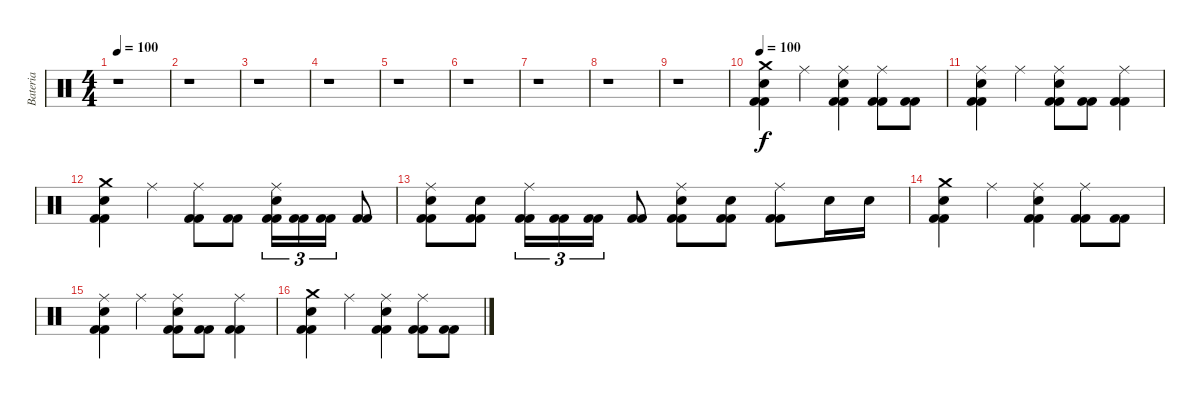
\track ("Bateria" "Bateria") {instrument percussion}
\staff {score}
\articulation defaults
\ts (4 4)
\tempo 100
\clef neutral
\ks c
r.1{dy f} |
r.1 |
r.1 |
r.1 |
r.1 |
r.1 |
r.1 |
r.1 |
r.1 |
\tempo 100
("Kick (hit) 2" "Kick (hit) 2" "Snare (hit) 2" "Crash medium (hit)").4 "Ride (middle)".4 ("Kick (hit) 2" "Kick (hit) 2" "Snare (hit) 2" "Ride (middle)").4 ("Kick (hit) 2" "Kick (hit) 2" "Ride (middle)").8 ("Kick (hit) 2" "Kick (hit) 2").8 |
("Kick (hit) 2" "Kick (hit) 2" "Snare (hit) 2" "Ride (middle)").4 "Ride (middle)".4 ("Kick (hit) 2" "Kick (hit) 2" "Snare (hit) 2" "Ride (middle)").8 ("Kick (hit) 2" "Kick (hit) 2").8 ("Kick (hit) 2" "Kick (hit) 2" "Ride (middle)").4 |
("Kick (hit) 2" "Kick (hit) 2" "Snare (hit) 2" "Crash medium (hit)").4 "Ride (middle)".4 ("Kick (hit) 2" "Kick (hit) 2" "Ride (middle)").8 ("Kick (hit) 2" "Kick (hit) 2").8 ("Kick (hit) 2" "Kick (hit) 2" "Snare (hit) 2" "Ride (middle)").16{tu (3 2)} ("Kick (hit) 2" "Kick (hit) 2").16{tu (3 2)} ("Kick (hit) 2" "Kick (hit) 2").16{tu (3 2)} ("Kick (hit) 2" "Kick (hit) 2").8 |
("Kick (hit) 2" "Kick (hit) 2" "Snare (hit) 2" "Ride (middle)").8 ("Kick (hit) 2" "Kick (hit) 2" "Snare (hit) 2").8 ("Kick (hit) 2" "Kick (hit) 2" "Ride (middle)").16{tu (3 2)} ("Kick (hit) 2" "Kick (hit) 2").16{tu (3 2)} ("Kick (hit) 2" "Kick (hit) 2").16{tu (3 2)} ("Kick (hit) 2" "Kick (hit) 2").8 ("Kick (hit) 2" "Kick (hit) 2" "Snare (hit) 2" "Ride (middle)").8 ("Kick (hit) 2" "Kick (hit) 2" "Snare (hit) 2").8 ("Kick (hit) 2" "Kick (hit) 2" "Ride (middle)").8 "Snare (hit) 2".16 "Snare (hit) 2".16 |
("Kick (hit) 2" "Kick (hit) 2" "Snare (hit) 2" "Crash medium (hit)").4 "Ride (middle)".4 ("Kick (hit) 2" "Kick (hit) 2" "Snare (hit) 2" "Ride (middle)").4 ("Kick (hit) 2" "Kick (hit) 2" "Ride (middle)").8 ("Kick (hit) 2" "Kick (hit) 2").8 |
("Kick (hit) 2" "Kick (hit) 2" "Snare (hit) 2" "Ride (middle)").4 "Ride (middle)".4 ("Kick (hit) 2" "Kick (hit) 2" "Snare (hit) 2" "Ride (middle)").8 ("Kick (hit) 2" "Kick (hit) 2").8 ("Kick (hit) 2" "Kick (hit) 2" "Ride (middle)").4 |
("Kick (hit) 2" "Kick (hit) 2" "Snare (hit) 2" "Crash medium (hit)").4 "Ride (middle)".4 ("Kick (hit) 2" "Kick (hit) 2" "Snare (hit) 2" "Ride (middle)").4 ("Kick (hit) 2" "Kick (hit) 2" "Ride (middle)").8 ("Kick (hit) 2" "Kick (hit) 2").8
